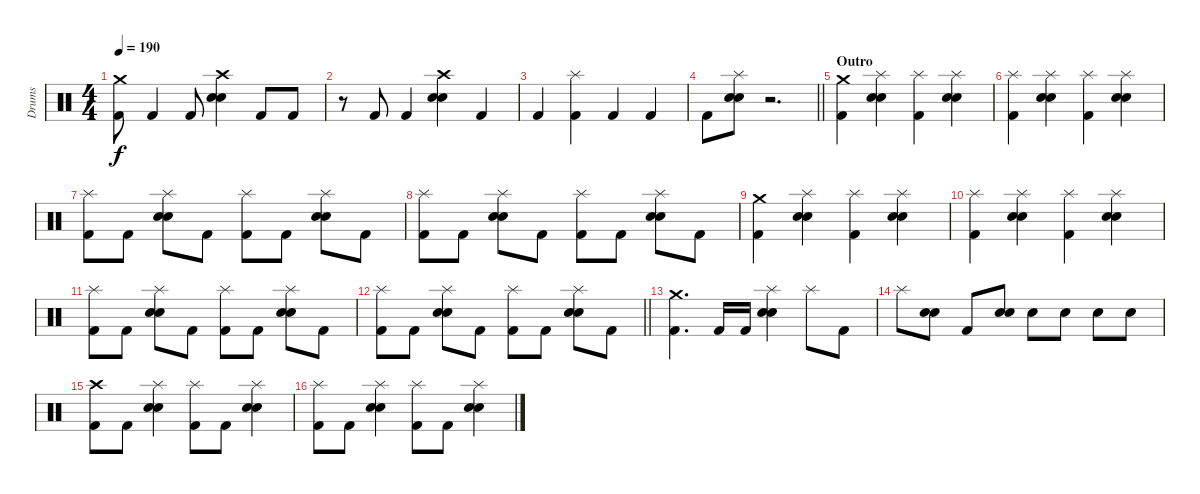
\track ("Drums" "Drums") {instrument percussion}
\staff
\articulation defaults
\ts (4 4)
\tempo 190
\clef neutral
\ks c
("Crash medium (hit)" "Kick (hit) 2").8{dy f} "Kick (hit) 2".4 "Kick (hit) 2".8 ("Crash high (hit)" "Electric Snare (hit)" "Snare (hit) 2").4 "Kick (hit) 2".8 "Kick (hit) 2".8 |
r.8 "Kick (hit) 2".8 "Kick (hit) 2".4 ("Crash high (hit)" "Electric Snare (hit)" "Snare (hit) 2").4 "Kick (hit) 2".4 |
"Kick (hit) 2".4 ("Splash (hit)" "Kick (hit) 2").4 "Kick (hit) 2".4 "Kick (hit) 2".4 |
\barLineRight lightlight "Kick (hit) 2".8
("Splash (hit)" "Electric Snare (hit)" "Snare (hit) 2").8 r.2{d} |
\section ("" "Outro")
("Crash medium (hit)" "Kick (hit) 2").4 ("Splash (hit)" "Electric Snare (hit)" "Snare (hit) 2").4 ("Splash (hit)" "Kick (hit) 2").4 ("Splash (hit)" "Electric Snare (hit)" "Snare (hit) 2").4 |
("Splash (hit)" "Kick (hit) 2").4 ("Splash (hit)" "Electric Snare (hit)" "Snare (hit) 2").4 ("Splash (hit)" "Kick (hit) 2").4 ("Splash (hit)" "Electric Snare (hit)" "Snare (hit) 2").4 |
("Splash (hit)" "Kick (hit) 2").8 "Kick (hit) 2".8 ("Splash (hit)" "Electric Snare (hit)" "Snare (hit) 2").8 "Kick (hit) 2".8 ("Splash (hit)" "Kick (hit) 2").8 "Kick (hit) 2".8 ("Splash (hit)" "Electric Snare (hit)" "Snare (hit) 2").8 "Kick (hit) 2".8 |
("Splash (hit)" "Kick (hit) 2").8 "Kick (hit) 2".8 ("Splash (hit)" "Electric Snare (hit)" "Snare (hit) 2").8 "Kick (hit) 2".8 ("Splash (hit)" "Kick (hit) 2").8 "Kick (hit) 2".8 ("Splash (hit)" "Electric Snare (hit)" "Snare (hit) 2").8 "Kick (hit) 2".8 |
("Crash medium (hit)" "Kick (hit) 2").4 ("Splash (hit)" "Electric Snare (hit)" "Snare (hit) 2").4 ("Splash (hit)" "Kick (hit) 2").4 ("Splash (hit)" "Electric Snare (hit)" "Snare (hit) 2").4 |
("Splash (hit)" "Kick (hit) 2").4 ("Splash (hit)" "Electric Snare (hit)" "Snare (hit) 2").4 ("Splash (hit)" "Kick (hit) 2").4 ("Splash (hit)" "Electric Snare (hit)" "Snare (hit) 2").4 |
("Splash (hit)" "Kick (hit) 2").8 "Kick (hit) 2".8 ("Splash (hit)" "Electric Snare (hit)" "Snare (hit) 2").8 "Kick (hit) 2".8 ("Splash (hit)" "Kick (hit) 2").8 "Kick (hit) 2".8 ("Splash (hit)" "Electric Snare (hit)" "Snare (hit) 2").8 "Kick (hit) 2".8 |
\barLineRight lightlight
("Splash (hit)" "Kick (hit) 2").8 "Kick (hit) 2".8 ("Splash (hit)" "Electric Snare (hit)" "Snare (hit) 2").8 "Kick (hit) 2".8 ("Splash (hit)" "Kick (hit) 2").8 "Kick (hit) 2".8 ("Splash (hit)" "Electric Snare (hit)" "Snare (hit) 2").8 "Kick (hit) 2".8 |
("Crash medium (hit)" "Kick (hit) 2").4{d} "Kick (hit) 2".16 "Kick (hit) 2".16 ("Splash (hit)" "Electric Snare (hit)" "Snare (hit) 2").4 "Splash (hit)".8 "Kick (hit) 2".8 |
"Splash (hit)".8 ("Electric Snare (hit)" "Snare (hit) 2").8 "Kick (hit) 2".8 ("Electric Snare (hit)" "Snare (hit) 2").8 "Electric Snare (hit)".8 "Electric Snare (hit)".8 "Electric Snare (hit)".8 "Electric Snare (hit)".8 |
("Crash high (hit)" "Kick (hit) 2").8 "Kick (hit) 2".8 ("Splash (hit)" "Electric Snare (hit)" "Snare (hit) 2").4 ("Splash (hit)" "Kick (hit) 2").8 "Kick (hit) 2".8 ("Splash (hit)" "Electric Snare (hit)" "Snare (hit) 2").4 |
("Splash (hit)" "Kick (hit) 2").8 "Kick (hit) 2".8 ("Splash (hit)" "Electric Snare (hit)" "Snare (hit) 2").4 ("Splash (hit)" "Kick (hit) 2").8 "Kick (hit) 2".8 ("Splash (hit)" "Electric Snare (hit)" "Snare (hit) 2").4
